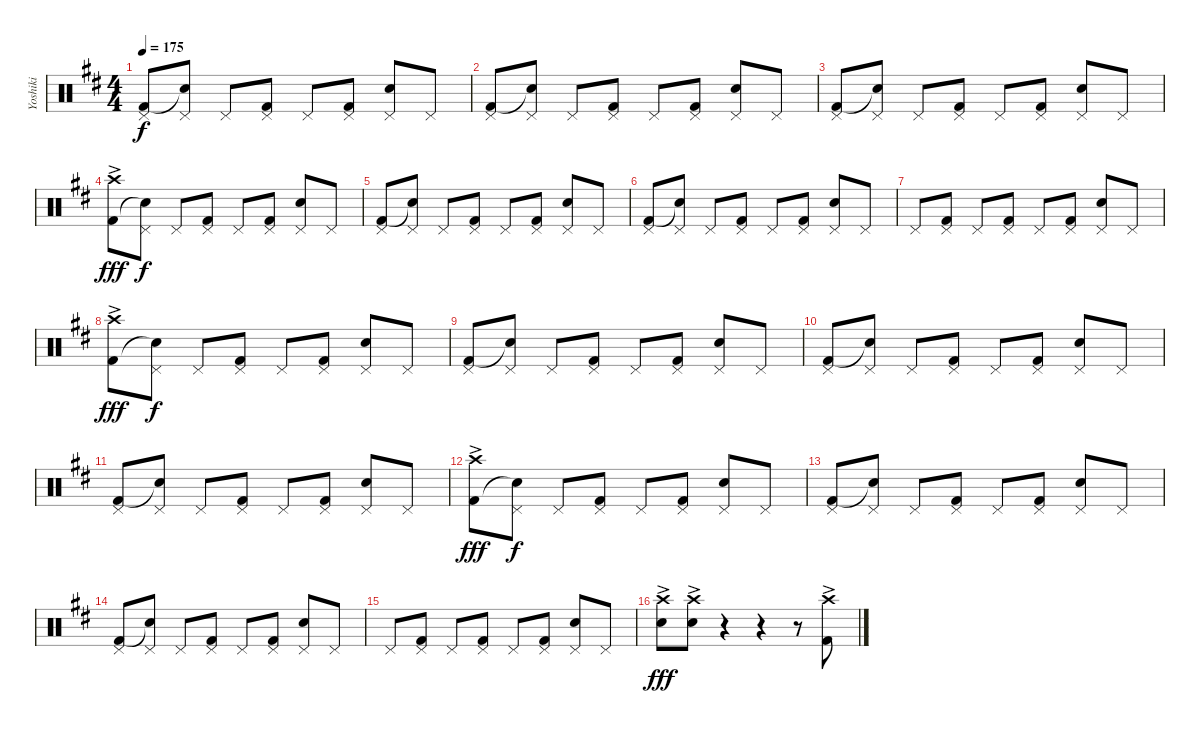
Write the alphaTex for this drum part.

\track ("Yoshiki" "Yoshiki") {instrument percussion}
\staff {score}
\articulation defaults
\ts (4 4)
\tempo 175
\clef neutral
\ks d
("Pedal Hi-Hat (hit)" "Kick (hit) 2").8{dy f} ("Pedal Hi-Hat (hit)" "Snare (hit)"{t}).8 "Pedal Hi-Hat (hit)".8 ("Pedal Hi-Hat (hit)" "Kick (hit) 2").8 "Pedal Hi-Hat (hit)".8 ("Pedal Hi-Hat (hit)" "Kick (hit) 2").8 ("Pedal Hi-Hat (hit)" "Snare (hit) 2").8 "Pedal Hi-Hat (hit)".8 |
("Pedal Hi-Hat (hit)" "Kick (hit) 2").8 ("Pedal Hi-Hat (hit)" "Snare (hit)"{t}).8 "Pedal Hi-Hat (hit)".8 ("Pedal Hi-Hat (hit)" "Kick (hit) 2").8 "Pedal Hi-Hat (hit)".8 ("Pedal Hi-Hat (hit)" "Kick (hit) 2").8 ("Pedal Hi-Hat (hit)" "Snare (hit) 2").8 "Pedal Hi-Hat (hit)".8 |
("Pedal Hi-Hat (hit)" "Kick (hit) 2").8 ("Pedal Hi-Hat (hit)" "Snare (hit)"{t}).8 "Pedal Hi-Hat (hit)".8 ("Pedal Hi-Hat (hit)" "Kick (hit) 2").8 "Pedal Hi-Hat (hit)".8 ("Pedal Hi-Hat (hit)" "Kick (hit) 2").8 ("Pedal Hi-Hat (hit)" "Snare (hit) 2").8 "Pedal Hi-Hat (hit)".8 |
("Crash high (hit)"{ac} "Kick (hit) 2"{ac}).8{dy fff} ("Pedal Hi-Hat (hit)" "Snare (hit)"{t}).8{dy f} "Pedal Hi-Hat (hit)".8 ("Pedal Hi-Hat (hit)" "Kick (hit) 2").8 "Pedal Hi-Hat (hit)".8 ("Pedal Hi-Hat (hit)" "Kick (hit) 2").8 ("Pedal Hi-Hat (hit)" "Snare (hit) 2").8 "Pedal Hi-Hat (hit)".8 |
("Pedal Hi-Hat (hit)" "Kick (hit) 2").8 ("Pedal Hi-Hat (hit)" "Snare (hit)"{t}).8 "Pedal Hi-Hat (hit)".8 ("Pedal Hi-Hat (hit)" "Kick (hit) 2").8 "Pedal Hi-Hat (hit)".8 ("Pedal Hi-Hat (hit)" "Kick (hit) 2").8 ("Pedal Hi-Hat (hit)" "Snare (hit) 2").8 "Pedal Hi-Hat (hit)".8 |
("Pedal Hi-Hat (hit)" "Kick (hit) 2").8 ("Pedal Hi-Hat (hit)" "Snare (hit)"{t}).8 "Pedal Hi-Hat (hit)".8 ("Pedal Hi-Hat (hit)" "Kick (hit) 2").8 "Pedal Hi-Hat (hit)".8 ("Pedal Hi-Hat (hit)" "Kick (hit) 2").8 ("Pedal Hi-Hat (hit)" "Snare (hit) 2").8 "Pedal Hi-Hat (hit)".8 |
"Pedal Hi-Hat (hit)".8 ("Pedal Hi-Hat (hit)" "Kick (hit) 2").8 "Pedal Hi-Hat (hit)".8 ("Pedal Hi-Hat (hit)" "Kick (hit) 2").8 "Pedal Hi-Hat (hit)".8 ("Pedal Hi-Hat (hit)" "Kick (hit) 2").8 ("Pedal Hi-Hat (hit)" "Snare (hit) 2").8 "Pedal Hi-Hat (hit)".8 |
("Crash high (hit)"{ac} "Kick (hit) 2"{ac}).8{dy fff} ("Pedal Hi-Hat (hit)" "Snare (hit)"{t}).8{dy f} "Pedal Hi-Hat (hit)".8 ("Pedal Hi-Hat (hit)" "Kick (hit) 2").8 "Pedal Hi-Hat (hit)".8 ("Pedal Hi-Hat (hit)" "Kick (hit) 2").8 ("Pedal Hi-Hat (hit)" "Snare (hit) 2").8 "Pedal Hi-Hat (hit)".8 |
("Pedal Hi-Hat (hit)" "Kick (hit) 2").8 ("Pedal Hi-Hat (hit)" "Snare (hit)"{t}).8 "Pedal Hi-Hat (hit)".8 ("Pedal Hi-Hat (hit)" "Kick (hit) 2").8 "Pedal Hi-Hat (hit)".8 ("Pedal Hi-Hat (hit)" "Kick (hit) 2").8 ("Pedal Hi-Hat (hit)" "Snare (hit) 2").8 "Pedal Hi-Hat (hit)".8 |
("Pedal Hi-Hat (hit)" "Kick (hit) 2").8 ("Pedal Hi-Hat (hit)" "Snare (hit)"{t}).8 "Pedal Hi-Hat (hit)".8 ("Pedal Hi-Hat (hit)" "Kick (hit) 2").8 "Pedal Hi-Hat (hit)".8 ("Pedal Hi-Hat (hit)" "Kick (hit) 2").8 ("Pedal Hi-Hat (hit)" "Snare (hit) 2").8 "Pedal Hi-Hat (hit)".8 |
("Pedal Hi-Hat (hit)" "Kick (hit) 2").8 ("Pedal Hi-Hat (hit)" "Snare (hit)"{t}).8 "Pedal Hi-Hat (hit)".8 ("Pedal Hi-Hat (hit)" "Kick (hit) 2").8 "Pedal Hi-Hat (hit)".8 ("Pedal Hi-Hat (hit)" "Kick (hit) 2").8 ("Pedal Hi-Hat (hit)" "Snare (hit) 2").8 "Pedal Hi-Hat (hit)".8 |
("Crash high (hit)"{ac} "Kick (hit) 2"{ac}).8{dy fff} ("Pedal Hi-Hat (hit)" "Snare (hit)"{t}).8{dy f} "Pedal Hi-Hat (hit)".8 ("Pedal Hi-Hat (hit)" "Kick (hit) 2").8 "Pedal Hi-Hat (hit)".8 ("Pedal Hi-Hat (hit)" "Kick (hit) 2").8 ("Pedal Hi-Hat (hit)" "Snare (hit) 2").8 "Pedal Hi-Hat (hit)".8 |
("Pedal Hi-Hat (hit)" "Kick (hit) 2").8 ("Pedal Hi-Hat (hit)" "Snare (hit)"{t}).8 "Pedal Hi-Hat (hit)".8 ("Pedal Hi-Hat (hit)" "Kick (hit) 2").8 "Pedal Hi-Hat (hit)".8 ("Pedal Hi-Hat (hit)" "Kick (hit) 2").8 ("Pedal Hi-Hat (hit)" "Snare (hit) 2").8 "Pedal Hi-Hat (hit)".8 |
("Pedal Hi-Hat (hit)" "Kick (hit) 2").8 ("Pedal Hi-Hat (hit)" "Snare (hit)"{t}).8 "Pedal Hi-Hat (hit)".8 ("Pedal Hi-Hat (hit)" "Kick (hit) 2").8 "Pedal Hi-Hat (hit)".8 ("Pedal Hi-Hat (hit)" "Kick (hit) 2").8 ("Pedal Hi-Hat (hit)" "Snare (hit) 2").8 "Pedal Hi-Hat (hit)".8 |
"Pedal Hi-Hat (hit)".8 ("Pedal Hi-Hat (hit)" "Kick (hit) 2").8 "Pedal Hi-Hat (hit)".8 ("Pedal Hi-Hat (hit)" "Kick (hit) 2").8 "Pedal Hi-Hat (hit)".8 ("Pedal Hi-Hat (hit)" "Kick (hit) 2").8 ("Pedal Hi-Hat (hit)" "Snare (hit) 2").8 "Pedal Hi-Hat (hit)".8 |
("Crash high (hit)"{ac} "Snare (hit) 2"{ac}).8{dy fff} ("Crash high (hit)"{ac} "Snare (hit) 2"{ac}).8 r.4 r.4 r.8 ("Crash high (hit)"{ac} "Kick (hit) 2"{ac}).8
